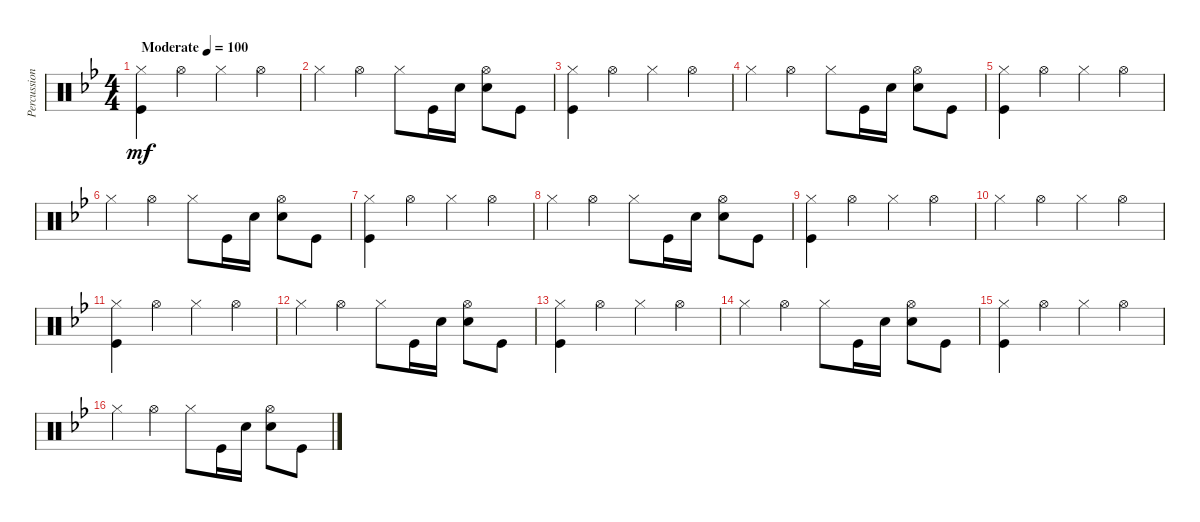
\track ("Percussion" "Percussion") {instrument percussion}
\staff {score}
\articulation defaults
\ts (4 4)
\tempo (100 "Moderate")
\clef neutral
\ks bb
("Hi-Hat (closed)" "Kick (hit)").4{dy mf} "Hi-Hat (open)".4 "Hi-Hat (closed)".4 "Hi-Hat (open)".4 |
"Hi-Hat (closed)".4 "Hi-Hat (open)".4 "Hi-Hat (closed)".8 "Kick (hit)".16 "Snare (hit) 2".16 ("Hi-Hat (open)" "Snare (hit) 2").8 "Kick (hit)".8 |
("Hi-Hat (closed)" "Kick (hit)").4 "Hi-Hat (open)".4 "Hi-Hat (closed)".4 "Hi-Hat (open)".4 |
"Hi-Hat (closed)".4 "Hi-Hat (open)".4 "Hi-Hat (closed)".8 "Kick (hit)".16 "Snare (hit) 2".16 ("Hi-Hat (open)" "Snare (hit) 2").8 "Kick (hit)".8 |
("Hi-Hat (closed)" "Kick (hit)").4 "Hi-Hat (open)".4 "Hi-Hat (closed)".4 "Hi-Hat (open)".4 |
"Hi-Hat (closed)".4 "Hi-Hat (open)".4 "Hi-Hat (closed)".8 "Kick (hit)".16 "Snare (hit) 2".16 ("Hi-Hat (open)" "Snare (hit) 2").8 "Kick (hit)".8 |
("Hi-Hat (closed)" "Kick (hit)").4 "Hi-Hat (open)".4 "Hi-Hat (closed)".4 "Hi-Hat (open)".4 |
"Hi-Hat (closed)".4 "Hi-Hat (open)".4 "Hi-Hat (closed)".8 "Kick (hit)".16 "Snare (hit) 2".16 ("Hi-Hat (open)" "Snare (hit) 2").8 "Kick (hit)".8 |
("Hi-Hat (closed)" "Kick (hit)").4 "Hi-Hat (open)".4 "Hi-Hat (closed)".4 "Hi-Hat (open)".4 |
"Hi-Hat (closed)".4 "Hi-Hat (open)".4 "Hi-Hat (closed)".4 "Hi-Hat (open)".4 |
("Hi-Hat (closed)" "Kick (hit)").4 "Hi-Hat (open)".4 "Hi-Hat (closed)".4 "Hi-Hat (open)".4 |
"Hi-Hat (closed)".4 "Hi-Hat (open)".4 "Hi-Hat (closed)".8 "Kick (hit)".16 "Snare (hit) 2".16 ("Hi-Hat (open)" "Snare (hit) 2").8 "Kick (hit)".8 |
("Hi-Hat (closed)" "Kick (hit)").4 "Hi-Hat (open)".4 "Hi-Hat (closed)".4 "Hi-Hat (open)".4 |
"Hi-Hat (closed)".4 "Hi-Hat (open)".4 "Hi-Hat (closed)".8 "Kick (hit)".16 "Snare (hit) 2".16 ("Hi-Hat (open)" "Snare (hit) 2").8 "Kick (hit)".8 |
("Hi-Hat (closed)" "Kick (hit)").4 "Hi-Hat (open)".4 "Hi-Hat (closed)".4 "Hi-Hat (open)".4 |
"Hi-Hat (closed)".4 "Hi-Hat (open)".4 "Hi-Hat (closed)".8 "Kick (hit)".16 "Snare (hit) 2".16 ("Hi-Hat (open)" "Snare (hit) 2").8 "Kick (hit)".8
